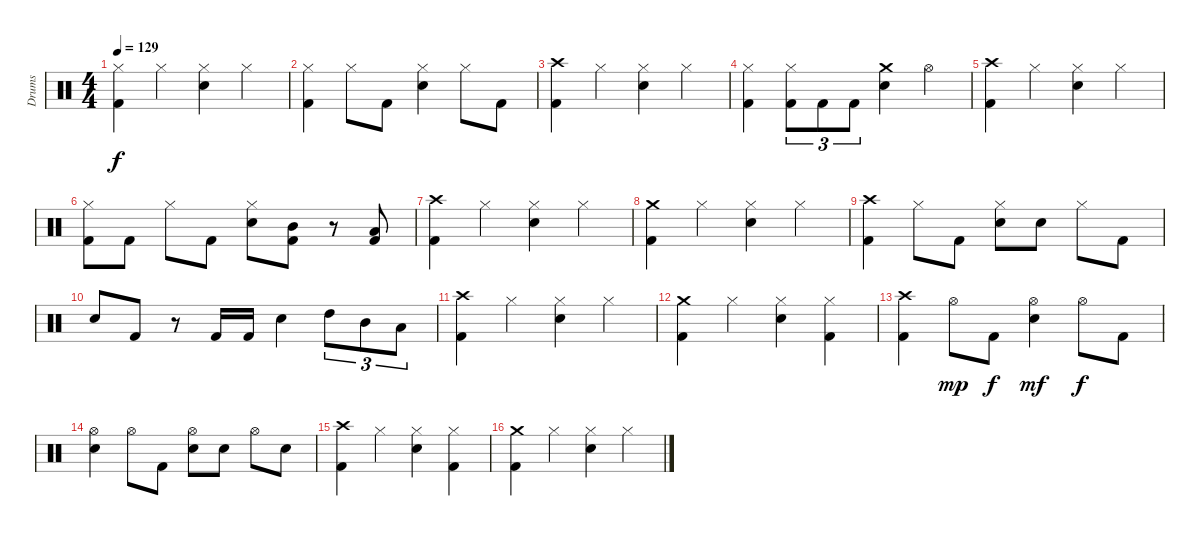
\track ("Drums" "Drums") {instrument percussion}
\staff {score}
\articulation defaults
\ts (4 4)
\tempo 129
\clef neutral
\ks c
("Kick (hit) 2" "Hi-Hat (closed)").4{dy f} "Hi-Hat (closed)".4 ("Electric Snare (hit)" "Hi-Hat (closed)").4 "Hi-Hat (closed)".4 |
("Kick (hit) 2" "Hi-Hat (closed)").4 "Hi-Hat (closed)".8 "Kick (hit) 2".8 ("Electric Snare (hit)" "Hi-Hat (closed)").4 "Hi-Hat (closed)".8 "Kick (hit) 2".8 |
("Kick (hit) 2" "Crash high (hit)").4 "Hi-Hat (closed)".4 ("Electric Snare (hit)" "Hi-Hat (closed)").4 "Hi-Hat (closed)".4 |
("Kick (hit) 2" "Hi-Hat (closed)").4 ("Kick (hit) 2" "Hi-Hat (closed)").8{tu (3 2)} "Kick (hit) 2".8{tu (3 2)} "Kick (hit) 2".8{tu (3 2)} ("Electric Snare (hit)" "Crash medium (hit)").4 "Hi-Hat (open)".4 |
("Kick (hit) 2" "Crash high (hit)").4 "Hi-Hat (closed)".4 ("Electric Snare (hit)" "Hi-Hat (closed)").4 "Hi-Hat (closed)".4 |
("Kick (hit) 2" "Hi-Hat (closed)").8 "Kick (hit) 2".8 "Hi-Hat (closed)".8 "Kick (hit) 2".8 ("Electric Snare (hit)" "Hi-Hat (closed)").8 ("Kick (hit) 2" "Mid Tom (hit)").8 r.8 ("Kick (hit) 2" "Low Tom (hit)").8 |
("Kick (hit) 2" "Crash high (hit)").4 "Hi-Hat (closed)".4 ("Electric Snare (hit)" "Hi-Hat (closed)").4 "Hi-Hat (closed)".4 |
("Kick (hit) 2" "Crash medium (hit)").4 "Hi-Hat (closed)".4 ("Electric Snare (hit)" "Hi-Hat (closed)").4 "Hi-Hat (closed)".4 |
("Kick (hit) 2" "Crash high (hit)").4 "Hi-Hat (closed)".8 "Kick (hit) 2".8 ("Electric Snare (hit)" "Hi-Hat (closed)").8 "Electric Snare (hit)".8 "Hi-Hat (closed)".8 "Kick (hit) 2".8 |
"Electric Snare (hit)".8 "Kick (hit) 2".8 r.8 "Kick (hit) 2".16 "Kick (hit) 2".16 "Electric Snare (hit)".4 "High Tom (hit)".8{tu (3 2)} "Mid Tom (hit)".8{tu (3 2)} "Low Tom (hit)".8{tu (3 2)} |
("Kick (hit) 2" "Crash high (hit)").4 "Hi-Hat (closed)".4 ("Electric Snare (hit)" "Hi-Hat (closed)").4 "Hi-Hat (closed)".4 |
("Kick (hit) 2" "Crash medium (hit)").4 "Hi-Hat (closed)".4 ("Electric Snare (hit)" "Hi-Hat (closed)").4 ("Kick (hit) 2" "Hi-Hat (closed)").4 |
("Kick (hit) 2" "Crash high (hit)").4 "Hi-Hat (open)".8{dy mp} "Kick (hit) 2".8{dy f} ("Electric Snare (hit)" "Hi-Hat (open)").4{dy mf} "Hi-Hat (open)".8{dy f} "Kick (hit) 2".8 |
("Electric Snare (hit)" "Hi-Hat (open)").4 "Hi-Hat (open)".8 "Kick (hit) 2".8 ("Electric Snare (hit)" "Hi-Hat (open)").8 "Electric Snare (hit)".8 "Hi-Hat (open)".8 "Electric Snare (hit)".8 |
\section ("" "")
("Kick (hit) 2" "Crash high (hit)").4 "Hi-Hat (closed)".4 ("Electric Snare (hit)" "Hi-Hat (closed)").4 ("Kick (hit) 2" "Hi-Hat (closed)").4 |
("Kick (hit) 2" "Crash medium (hit)").4 "Hi-Hat (closed)".4 ("Electric Snare (hit)" "Hi-Hat (closed)").4 "Hi-Hat (closed)".4
